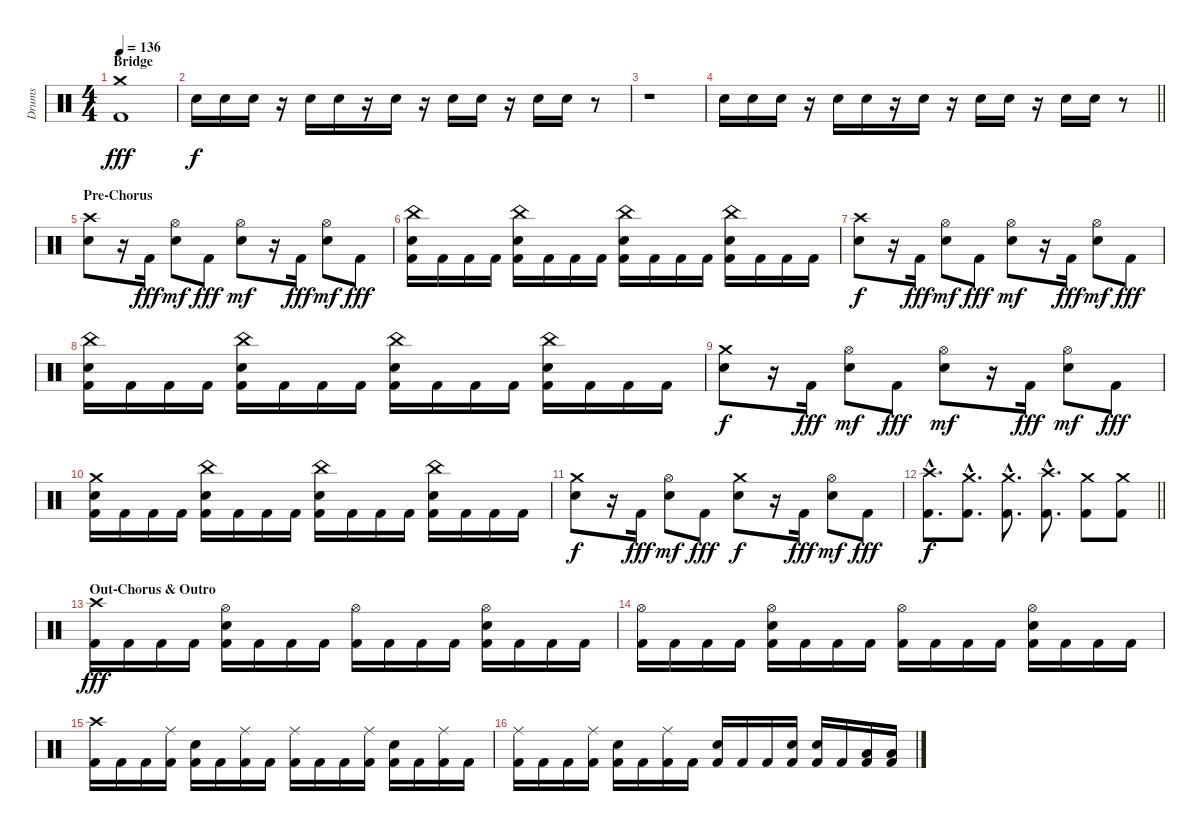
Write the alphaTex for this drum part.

\track ("Drums" "Drums") {instrument percussion}
\staff {score}
\articulation defaults
\ts (4 4)
\section ("" "Bridge")
\tempo 136
\clef neutral
\ks c
("Crash medium (hit)" "Kick (hit) 2").1{dy fff} |
"Electric Snare (hit)".16{dy f} "Electric Snare (hit)".16 "Electric Snare (hit)".16 r.16 "Electric Snare (hit)".16 "Electric Snare (hit)".16 r.16 "Electric Snare (hit)".16 r.16 "Electric Snare (hit)".16 "Electric Snare (hit)".16 r.16 "Electric Snare (hit)".16 "Electric Snare (hit)".16 r.8 |
r.1 |
\barLineRight lightlight "Electric Snare (hit)".16 "Electric Snare (hit)".16 "Electric Snare (hit)".16
r.16 "Electric Snare (hit)".16 "Electric Snare (hit)".16 r.16 "Electric Snare (hit)".16 r.16 "Electric Snare (hit)".16 "Electric Snare (hit)".16 r.16 "Electric Snare (hit)".16 "Electric Snare (hit)".16 r.8 |
\section ("" "Pre-Chorus")
("Crash high (hit)" "Electric Snare (hit)").8 r.16 "Kick (hit) 2".16{dy fff} ("Hi-Hat (open)" "Electric Snare (hit)").8{dy mf} "Kick (hit) 2".8{dy fff} ("Hi-Hat (open)" "Electric Snare (hit)").8{dy mf} r.16 "Kick (hit) 2".16{dy fff} ("Hi-Hat (open)" "Electric Snare (hit)").8{dy mf} "Kick (hit) 2".8{dy fff} |
("China (hit)" "Electric Snare (hit)" "Kick (hit) 2").16 "Kick (hit) 2".16 "Kick (hit) 2".16 "Kick (hit) 2".16 ("China (hit)" "Electric Snare (hit)" "Kick (hit) 2").16 "Kick (hit) 2".16 "Kick (hit) 2".16 "Kick (hit) 2".16 ("China (hit)" "Electric Snare (hit)" "Kick (hit) 2").16 "Kick (hit) 2".16 "Kick (hit) 2".16 "Kick (hit) 2".16 ("China (hit)" "Electric Snare (hit)" "Kick (hit) 2").16 "Kick (hit) 2".16 "Kick (hit) 2".16 "Kick (hit) 2".16 |
("Crash high (hit)" "Electric Snare (hit)").8{dy f} r.16 "Kick (hit) 2".16{dy fff} ("Hi-Hat (open)" "Electric Snare (hit)").8{dy mf} "Kick (hit) 2".8{dy fff} ("Hi-Hat (open)" "Electric Snare (hit)").8{dy mf} r.16 "Kick (hit) 2".16{dy fff} ("Hi-Hat (open)" "Electric Snare (hit)").8{dy mf} "Kick (hit) 2".8{dy fff} |
("China (hit)" "Electric Snare (hit)" "Kick (hit) 2").16 "Kick (hit) 2".16 "Kick (hit) 2".16 "Kick (hit) 2".16 ("China (hit)" "Electric Snare (hit)" "Kick (hit) 2").16 "Kick (hit) 2".16 "Kick (hit) 2".16 "Kick (hit) 2".16 ("China (hit)" "Electric Snare (hit)" "Kick (hit) 2").16 "Kick (hit) 2".16 "Kick (hit) 2".16 "Kick (hit) 2".16 ("China (hit)" "Electric Snare (hit)" "Kick (hit) 2").16 "Kick (hit) 2".16 "Kick (hit) 2".16 "Kick (hit) 2".16 |
("Crash medium (hit)" "Electric Snare (hit)").8{dy f} r.16 "Kick (hit) 2".16{dy fff} ("Hi-Hat (open)" "Electric Snare (hit)").8{dy mf} "Kick (hit) 2".8{dy fff} ("Hi-Hat (open)" "Electric Snare (hit)").8{dy mf} r.16 "Kick (hit) 2".16{dy fff} ("Hi-Hat (open)" "Electric Snare (hit)").8{dy mf} "Kick (hit) 2".8{dy fff} |
("Crash medium (hit)" "Electric Snare (hit)" "Kick (hit) 2").16 "Kick (hit) 2".16 "Kick (hit) 2".16 "Kick (hit) 2".16 ("China (hit)" "Electric Snare (hit)" "Kick (hit) 2").16 "Kick (hit) 2".16 "Kick (hit) 2".16 "Kick (hit) 2".16 ("China (hit)" "Electric Snare (hit)" "Kick (hit) 2").16 "Kick (hit) 2".16 "Kick (hit) 2".16 "Kick (hit) 2".16 ("China (hit)" "Electric Snare (hit)" "Kick (hit) 2").16 "Kick (hit) 2".16 "Kick (hit) 2".16 "Kick (hit) 2".16 |
("Crash medium (hit)" "Electric Snare (hit)").8{dy f} r.16 "Kick (hit) 2".16{dy fff} ("Hi-Hat (open)" "Electric Snare (hit)").8{dy mf} "Kick (hit) 2".8{dy fff} ("Crash medium (hit)" "Electric Snare (hit)").8{dy f} r.16 "Kick (hit) 2".16{dy fff} ("Hi-Hat (open)" "Electric Snare (hit)").8{dy mf} "Kick (hit) 2".8{dy fff} |
\barLineRight lightlight
("Crash high (hit)"{hac} "Kick (hit) 2"{hac}).8{d dy f} ("Crash medium (hit)"{hac} "Kick (hit) 2"{hac}).8{d} ("Crash medium (hit)"{hac} "Kick (hit) 2"{hac}).8{d} ("Crash high (hit)"{hac} "Kick (hit) 2"{hac}).8{d} ("Crash medium (hit)" "Kick (hit) 2").8 ("Crash medium (hit)" "Kick (hit) 2").8 |
\section ("" "Out-Chorus & Outro")
("Crash high (hit)" "Kick (hit) 2").16{dy fff} "Kick (hit) 2".16 "Kick (hit) 2".16 "Kick (hit) 2".16 ("Hi-Hat (open)" "Electric Snare (hit)" "Kick (hit) 2").16 "Kick (hit) 2".16 "Kick (hit) 2".16 "Kick (hit) 2".16 ("Hi-Hat (open)" "Kick (hit) 2").16 "Kick (hit) 2".16 "Kick (hit) 2".16 "Kick (hit) 2".16 ("Hi-Hat (open)" "Electric Snare (hit)" "Kick (hit) 2").16 "Kick (hit) 2".16 "Kick (hit) 2".16 "Kick (hit) 2".16 |
("Hi-Hat (open)" "Kick (hit) 2").16 "Kick (hit) 2".16 "Kick (hit) 2".16 "Kick (hit) 2".16 ("Hi-Hat (open)" "Electric Snare (hit)" "Kick (hit) 2").16 "Kick (hit) 2".16 "Kick (hit) 2".16 "Kick (hit) 2".16 ("Hi-Hat (open)" "Kick (hit) 2").16 "Kick (hit) 2".16 "Kick (hit) 2".16 "Kick (hit) 2".16 ("Hi-Hat (open)" "Electric Snare (hit)" "Kick (hit) 2").16 "Kick (hit) 2".16 "Kick (hit) 2".16 "Kick (hit) 2".16 |
("Crash high (hit)" "Kick (hit) 2").16 "Kick (hit) 2".16 "Kick (hit) 2".16 ("Ride (middle)" "Kick (hit) 2").16 ("Electric Snare (hit)" "Kick (hit) 2").16 "Kick (hit) 2".16 ("Ride (middle)" "Kick (hit) 2").16 "Kick (hit) 2".16 ("Ride (middle)" "Kick (hit) 2").16 "Kick (hit) 2".16 "Kick (hit) 2".16 ("Ride (middle)" "Kick (hit) 2").16 ("Electric Snare (hit)" "Kick (hit) 2").16 "Kick (hit) 2".16 ("Ride (middle)" "Kick (hit) 2").16 "Kick (hit) 2".16 |
("Ride (middle)" "Kick (hit) 2").16 "Kick (hit) 2".16 "Kick (hit) 2".16 ("Ride (middle)" "Kick (hit) 2").16 ("Electric Snare (hit)" "Kick (hit) 2").16 "Kick (hit) 2".16 ("Ride (middle)" "Kick (hit) 2").16 "Kick (hit) 2".16 ("Electric Snare (hit)" "Kick (hit) 2").16 "Kick (hit) 2".16 "Kick (hit) 2".16 ("Electric Snare (hit)" "Kick (hit) 2").16 ("Electric Snare (hit)" "Kick (hit) 2").16 "Kick (hit) 2".16 ("Low Tom (hit)" "Kick (hit) 2").16 ("Low Tom (hit)" "Kick (hit) 2").16
